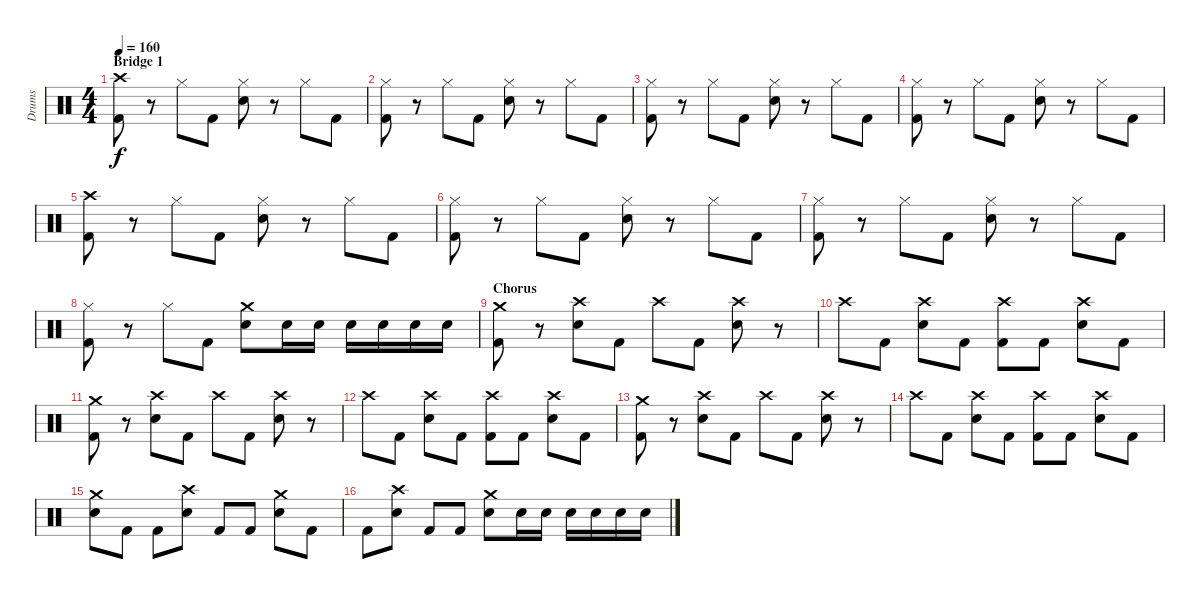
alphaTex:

\track ("Drums" "Drums") {instrument percussion}
\staff {score}
\articulation defaults
\ts (4 4)
\section ("" "Bridge 1")
\tempo 160
\clef neutral
\ks c
("Crash high (hit)" "Kick (hit) 2").8{dy f} r.8 "Hi-Hat (closed)".8 "Kick (hit) 2".8 ("Hi-Hat (closed)" "Electric Snare (hit)").8 r.8 "Hi-Hat (closed)".8 "Kick (hit) 2".8 |
("Hi-Hat (closed)" "Kick (hit) 2").8 r.8 "Hi-Hat (closed)".8 "Kick (hit) 2".8 ("Hi-Hat (closed)" "Electric Snare (hit)").8 r.8 "Hi-Hat (closed)".8 "Kick (hit) 2".8 |
("Hi-Hat (closed)" "Kick (hit) 2").8 r.8 "Hi-Hat (closed)".8 "Kick (hit) 2".8 ("Hi-Hat (closed)" "Electric Snare (hit)").8 r.8 "Hi-Hat (closed)".8 "Kick (hit) 2".8 |
("Hi-Hat (closed)" "Kick (hit) 2").8 r.8 "Hi-Hat (closed)".8 "Kick (hit) 2".8 ("Hi-Hat (closed)" "Electric Snare (hit)").8 r.8 "Hi-Hat (closed)".8 "Kick (hit) 2".8 |
("Crash high (hit)" "Kick (hit) 2").8 r.8 "Hi-Hat (closed)".8 "Kick (hit) 2".8 ("Hi-Hat (closed)" "Electric Snare (hit)").8 r.8 "Hi-Hat (closed)".8 "Kick (hit) 2".8 |
("Hi-Hat (closed)" "Kick (hit) 2").8 r.8 "Hi-Hat (closed)".8 "Kick (hit) 2".8 ("Hi-Hat (closed)" "Electric Snare (hit)").8 r.8 "Hi-Hat (closed)".8 "Kick (hit) 2".8 |
("Hi-Hat (closed)" "Kick (hit) 2").8 r.8 "Hi-Hat (closed)".8 "Kick (hit) 2".8 ("Hi-Hat (closed)" "Electric Snare (hit)").8 r.8 "Hi-Hat (closed)".8 "Kick (hit) 2".8 |
("Hi-Hat (closed)" "Kick (hit) 2").8 r.8 "Hi-Hat (closed)".8 "Kick (hit) 2".8 ("Crash medium (hit)" "Electric Snare (hit)").8 "Electric Snare (hit)".16 "Electric Snare (hit)".16 "Electric Snare (hit)".16 "Electric Snare (hit)".16 "Electric Snare (hit)".16 "Electric Snare (hit)".16 |
\section ("" "Chorus")
("Crash medium (hit)" "Kick (hit) 2").8 r.8 ("Crash high (hit)" "Electric Snare (hit)").8 "Kick (hit) 2".8 "Crash high (hit)".8 "Kick (hit) 2".8 ("Crash high (hit)" "Electric Snare (hit)").8 r.8 |
"Crash high (hit)".8 "Kick (hit) 2".8 ("Crash high (hit)" "Electric Snare (hit)").8 "Kick (hit) 2".8 ("Crash high (hit)" "Kick (hit) 2").8 "Kick (hit) 2".8 ("Crash high (hit)" "Electric Snare (hit)").8 "Kick (hit) 2".8 |
("Crash medium (hit)" "Kick (hit) 2").8 r.8 ("Crash high (hit)" "Electric Snare (hit)").8 "Kick (hit) 2".8 "Crash high (hit)".8 "Kick (hit) 2".8 ("Crash high (hit)" "Electric Snare (hit)").8 r.8 |
"Crash high (hit)".8 "Kick (hit) 2".8 ("Crash high (hit)" "Electric Snare (hit)").8 "Kick (hit) 2".8 ("Crash high (hit)" "Kick (hit) 2").8 "Kick (hit) 2".8 ("Crash high (hit)" "Electric Snare (hit)").8 "Kick (hit) 2".8 |
("Crash medium (hit)" "Kick (hit) 2").8 r.8 ("Crash high (hit)" "Electric Snare (hit)").8 "Kick (hit) 2".8 "Crash high (hit)".8 "Kick (hit) 2".8 ("Crash high (hit)" "Electric Snare (hit)").8 r.8 |
"Crash high (hit)".8 "Kick (hit) 2".8 ("Crash high (hit)" "Electric Snare (hit)").8 "Kick (hit) 2".8 ("Crash high (hit)" "Kick (hit) 2").8 "Kick (hit) 2".8 ("Crash high (hit)" "Electric Snare (hit)").8 "Kick (hit) 2".8 |
("Crash medium (hit)" "Electric Snare (hit)").8 "Kick (hit) 2".8 "Kick (hit) 2".8 ("Crash high (hit)" "Electric Snare (hit)").8 "Kick (hit) 2".8 "Kick (hit) 2".8 ("Crash medium (hit)" "Electric Snare (hit)").8 "Kick (hit) 2".8 |
"Kick (hit) 2".8 ("Crash high (hit)" "Electric Snare (hit)").8 "Kick (hit) 2".8 "Kick (hit) 2".8 ("Crash medium (hit)" "Electric Snare (hit)").8 "Electric Snare (hit)".16 "Electric Snare (hit)".16 "Electric Snare (hit)".16 "Electric Snare (hit)".16 "Electric Snare (hit)".16 "Electric Snare (hit)".16
